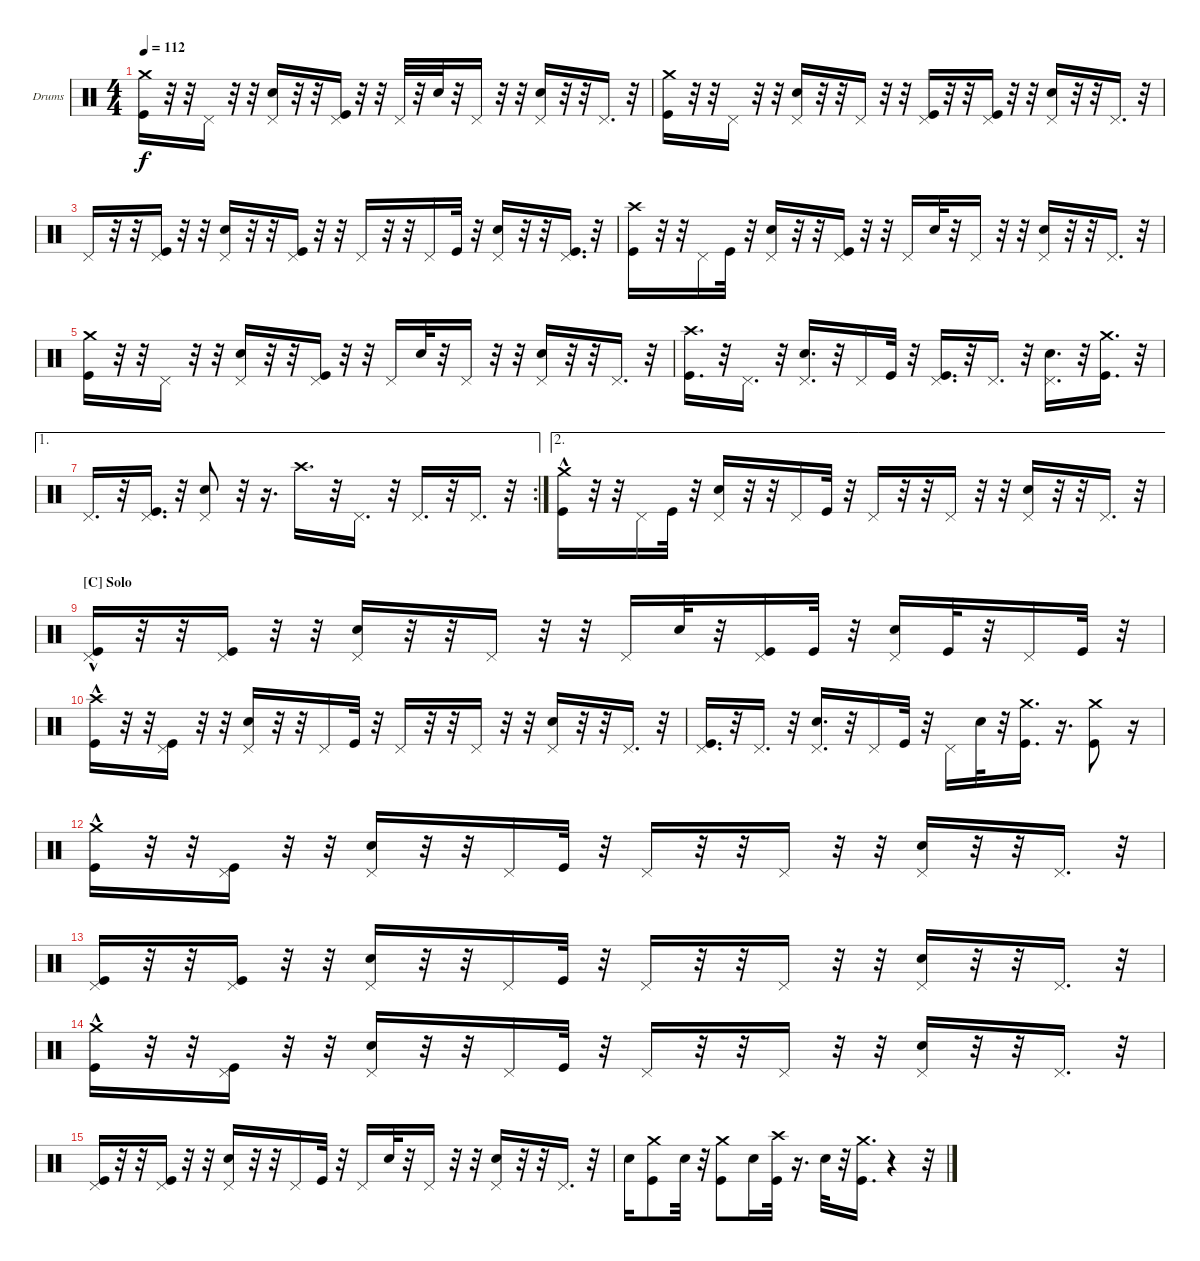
\bracketExtendMode nobrackets
\firstSystemTrackNameOrientation horizontal
\otherSystemsTrackNameOrientation horizontal
\defaultBarNumberDisplay FirstOfSystem
\track ("Drumkit" "Drums") {instrument percussion}
\staff {score}
\articulation defaults
\ts (4 4)
\tempo 112
\clef neutral
\ks c
("Crash medium (hit)" "Kick (hit)").16{dy f} r.32 r.32 "Pedal Hi-Hat (hit)".16 r.32 r.32 ("Pedal Hi-Hat (hit)" "Snare (hit) 2").16 r.32 r.32 ("Pedal Hi-Hat (hit)" "Kick (hit)").16 r.32 r.32 "Pedal Hi-Hat (hit)".32 r.32 "Snare (hit) 2".32 r.32 "Pedal Hi-Hat (hit)".16 r.32 r.32 ("Pedal Hi-Hat (hit)" "Snare (hit) 2").16 r.32 r.32 "Pedal Hi-Hat (hit)".16{d} r.32 |
("Kick (hit)" "Crash medium (hit)").16 r.32 r.32 "Pedal Hi-Hat (hit)".16 r.32 r.32 ("Pedal Hi-Hat (hit)" "Snare (hit) 2").16 r.32 r.32 "Pedal Hi-Hat (hit)".16 r.32 r.32 ("Pedal Hi-Hat (hit)" "Kick (hit)").16 r.32 r.32 ("Pedal Hi-Hat (hit)" "Kick (hit)").16 r.32 r.32 ("Pedal Hi-Hat (hit)" "Snare (hit) 2").16 r.32 r.32 "Pedal Hi-Hat (hit)".16{d} r.32 |
"Pedal Hi-Hat (hit)".16 r.32 r.32 ("Pedal Hi-Hat (hit)" "Kick (hit)").16 r.32 r.32 ("Pedal Hi-Hat (hit)" "Snare (hit) 2").16 r.32 r.32 ("Pedal Hi-Hat (hit)" "Kick (hit)").16 r.32 r.32 "Pedal Hi-Hat (hit)".16 r.32 r.32 "Pedal Hi-Hat (hit)".16 "Kick (hit)".32 r.32 ("Pedal Hi-Hat (hit)" "Snare (hit) 2").16 r.32 r.32 ("Pedal Hi-Hat (hit)" "Kick (hit)").16{d} r.32 |
("Crash high (hit)" "Kick (hit)").16 r.32 r.32 "Pedal Hi-Hat (hit)".16 "Kick (hit)".32 r.32 ("Pedal Hi-Hat (hit)" "Snare (hit) 2").16 r.32 r.32 ("Pedal Hi-Hat (hit)" "Kick (hit)").16 r.32 r.32 "Pedal Hi-Hat (hit)".16 "Snare (hit) 2".32 r.32 "Pedal Hi-Hat (hit)".16 r.32 r.32 ("Pedal Hi-Hat (hit)" "Snare (hit) 2").16 r.32 r.32 "Pedal Hi-Hat (hit)".16{d} r.32 |
("Crash medium (hit)" "Kick (hit)").16 r.32 r.32 "Pedal Hi-Hat (hit)".16 r.32 r.32 ("Pedal Hi-Hat (hit)" "Snare (hit) 2").16 r.32 r.32 ("Pedal Hi-Hat (hit)" "Kick (hit)").16 r.32 r.32 "Pedal Hi-Hat (hit)".16 "Snare (hit) 2".32 r.32 "Pedal Hi-Hat (hit)".16 r.32 r.32 ("Pedal Hi-Hat (hit)" "Snare (hit) 2").16 r.32 r.32 "Pedal Hi-Hat (hit)".16{d} r.32 |
("Crash high (hit)" "Kick (hit)").16{d} r.32 "Pedal Hi-Hat (hit)".16{d} r.32 ("Pedal Hi-Hat (hit)" "Snare (hit) 2").16{d} r.32 "Pedal Hi-Hat (hit)".16 "Kick (hit)".32 r.32 ("Pedal Hi-Hat (hit)" "Kick (hit)").16{d} r.32 "Pedal Hi-Hat (hit)".16{d} r.32 ("Pedal Hi-Hat (hit)" "Snare (hit) 2").16{d} r.32 ("Kick (hit)" "Crash medium (hit)").16{d} r.32 |
\ae 1
\rc 2 "Pedal Hi-Hat (hit)".16{d}
r.32 ("Pedal Hi-Hat (hit)" "Kick (hit)").16{d} r.32 ("Pedal Hi-Hat (hit)" "Snare (hit) 2").8 r.32 r.16{d} "Crash high (hit)".16{d} r.32 "Pedal Hi-Hat (hit)".16{d} r.32 "Pedal Hi-Hat (hit)".16{d} r.32 "Pedal Hi-Hat (hit)".16{d} r.32 |
\ae 2
("Kick (hit)"{hac} "Crash medium (hit)").16 r.32 r.32 "Pedal Hi-Hat (hit)".16 "Kick (hit)".32 r.32 ("Pedal Hi-Hat (hit)" "Snare (hit) 2").16 r.32 r.32 "Pedal Hi-Hat (hit)".16 "Kick (hit)".32 r.32 "Pedal Hi-Hat (hit)".16 r.32 r.32 "Pedal Hi-Hat (hit)".16 r.32 r.32 ("Pedal Hi-Hat (hit)" "Snare (hit) 2").16 r.32 r.32 "Pedal Hi-Hat (hit)".16{d} r.32 |
\section ("C" "Solo")
("Pedal Hi-Hat (hit)" "Kick (hit)"{hac}).16 r.32 r.32 ("Pedal Hi-Hat (hit)" "Kick (hit)").16 r.32 r.32 ("Pedal Hi-Hat (hit)" "Snare (hit) 2").16 r.32 r.32 "Pedal Hi-Hat (hit)".16 r.32 r.32 "Pedal Hi-Hat (hit)".16 "Snare (hit) 2".32 r.32 ("Pedal Hi-Hat (hit)" "Kick (hit)").16 "Kick (hit)".32 r.32 ("Pedal Hi-Hat (hit)" "Snare (hit) 2").16 "Kick (hit)".32 r.32 "Pedal Hi-Hat (hit)".16 "Kick (hit)".32 r.32 |
("Crash high (hit)" "Kick (hit)"{hac}).16 r.32 r.32 ("Pedal Hi-Hat (hit)" "Kick (hit)").16 r.32 r.32 ("Pedal Hi-Hat (hit)" "Snare (hit) 2").16 r.32 r.32 "Pedal Hi-Hat (hit)".16 "Kick (hit)".32 r.32 "Pedal Hi-Hat (hit)".16 r.32 r.32 "Pedal Hi-Hat (hit)".16 r.32 r.32 ("Pedal Hi-Hat (hit)" "Snare (hit) 2").16 r.32 r.32 "Pedal Hi-Hat (hit)".16{d} r.32 |
("Pedal Hi-Hat (hit)" "Kick (hit)").16{d} r.32 "Pedal Hi-Hat (hit)".16{d} r.32 ("Pedal Hi-Hat (hit)" "Snare (hit) 2").16{d} r.32 "Pedal Hi-Hat (hit)".16 "Kick (hit)".32 r.32 "Pedal Hi-Hat (hit)".16 "Snare (hit) 2".32 r.32 ("Kick (hit)" "Crash medium (hit)").16{d} r.16{d} ("Kick (hit)" "Crash medium (hit)").8 r.16 |
("Kick (hit)"{hac} "Crash medium (hit)").16 r.32 r.32 ("Pedal Hi-Hat (hit)" "Kick (hit)").16 r.32 r.32 ("Pedal Hi-Hat (hit)" "Snare (hit) 2").16 r.32 r.32 "Pedal Hi-Hat (hit)".16 "Kick (hit)".32 r.32 "Pedal Hi-Hat (hit)".16 r.32 r.32 "Pedal Hi-Hat (hit)".16 r.32 r.32 ("Pedal Hi-Hat (hit)" "Snare (hit) 2").16 r.32 r.32 "Pedal Hi-Hat (hit)".16{d} r.32 |
("Pedal Hi-Hat (hit)" "Kick (hit)").16 r.32 r.32 ("Pedal Hi-Hat (hit)" "Kick (hit)").16 r.32 r.32 ("Pedal Hi-Hat (hit)" "Snare (hit) 2").16 r.32 r.32 "Pedal Hi-Hat (hit)".16 "Kick (hit)".32 r.32 "Pedal Hi-Hat (hit)".16 r.32 r.32 "Pedal Hi-Hat (hit)".16 r.32 r.32 ("Pedal Hi-Hat (hit)" "Snare (hit) 2").16 r.32 r.32 "Pedal Hi-Hat (hit)".16{d} r.32 |
("Kick (hit)"{hac} "Crash medium (hit)").16 r.32 r.32 ("Pedal Hi-Hat (hit)" "Kick (hit)").16 r.32 r.32 ("Pedal Hi-Hat (hit)" "Snare (hit) 2").16 r.32 r.32 "Pedal Hi-Hat (hit)".16 "Kick (hit)".32 r.32 "Pedal Hi-Hat (hit)".16 r.32 r.32 "Pedal Hi-Hat (hit)".16 r.32 r.32 ("Pedal Hi-Hat (hit)" "Snare (hit) 2").16 r.32 r.32 "Pedal Hi-Hat (hit)".16{d} r.32 |
("Pedal Hi-Hat (hit)" "Kick (hit)").16 r.32 r.32 ("Pedal Hi-Hat (hit)" "Kick (hit)").16 r.32 r.32 ("Pedal Hi-Hat (hit)" "Snare (hit) 2").16 r.32 r.32 "Pedal Hi-Hat (hit)".16 "Kick (hit)".32 r.32 "Pedal Hi-Hat (hit)".16 "Snare (hit) 2".32 r.32 "Pedal Hi-Hat (hit)".16 r.32 r.32 ("Pedal Hi-Hat (hit)" "Snare (hit) 2").16 r.32 r.32 "Pedal Hi-Hat (hit)".16{d} r.32 |
"Snare (hit) 2".16 ("Kick (hit)" "Crash medium (hit)").8 "Snare (hit) 2".32 r.32 ("Kick (hit)" "Crash medium (hit)").8 "Snare (hit) 2".16 ("Crash high (hit)" "Kick (hit)").32 r.16{d} "Snare (hit) 2".32 r.32 ("Kick (hit)" "Crash medium (hit)").16{d} r.4 r.32
